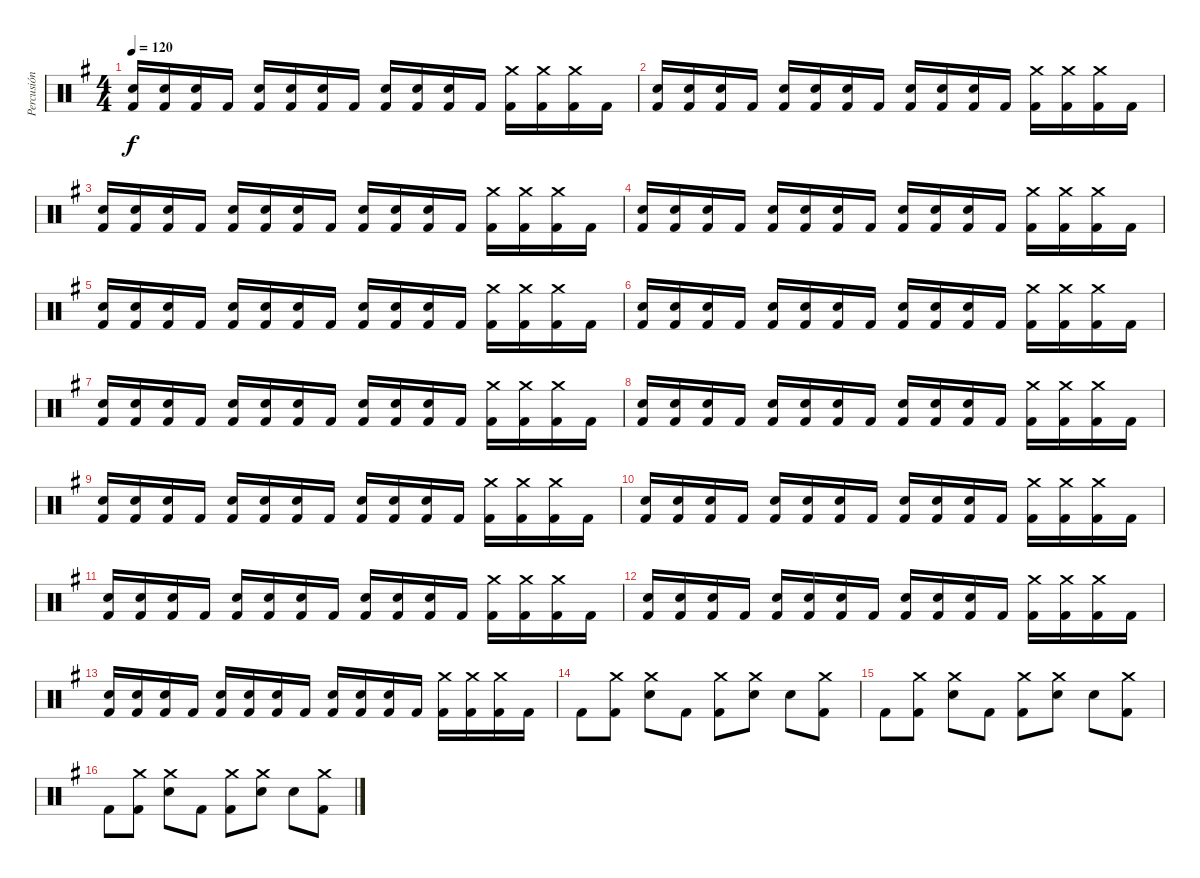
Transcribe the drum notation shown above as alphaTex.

\track ("Percusión" "Percusión") {instrument percussion}
\staff {score}
\articulation defaults
\ts (4 4)
\tempo 120
\clef neutral
\ks g
("Snare (hit) 2" "Kick (hit) 2").16{dy f} ("Snare (hit) 2" "Kick (hit) 2").16 ("Snare (hit) 2" "Kick (hit) 2").16 "Kick (hit) 2".16 ("Snare (hit) 2" "Kick (hit) 2").16 ("Snare (hit) 2" "Kick (hit) 2").16 ("Snare (hit) 2" "Kick (hit) 2").16 "Kick (hit) 2".16 ("Snare (hit) 2" "Kick (hit) 2").16 ("Snare (hit) 2" "Kick (hit) 2").16 ("Snare (hit) 2" "Kick (hit) 2").16 "Kick (hit) 2".16 ("Crash medium (hit)" "Kick (hit) 2").16 ("Crash medium (hit)" "Kick (hit) 2").16 ("Crash medium (hit)" "Kick (hit) 2").16 "Kick (hit) 2".16 |
("Snare (hit) 2" "Kick (hit) 2").16 ("Snare (hit) 2" "Kick (hit) 2").16 ("Snare (hit) 2" "Kick (hit) 2").16 "Kick (hit) 2".16 ("Snare (hit) 2" "Kick (hit) 2").16 ("Snare (hit) 2" "Kick (hit) 2").16 ("Snare (hit) 2" "Kick (hit) 2").16 "Kick (hit) 2".16 ("Snare (hit) 2" "Kick (hit) 2").16 ("Snare (hit) 2" "Kick (hit) 2").16 ("Snare (hit) 2" "Kick (hit) 2").16 "Kick (hit) 2".16 ("Crash medium (hit)" "Kick (hit) 2").16 ("Crash medium (hit)" "Kick (hit) 2").16 ("Crash medium (hit)" "Kick (hit) 2").16 "Kick (hit) 2".16 |
("Snare (hit) 2" "Kick (hit) 2").16 ("Snare (hit) 2" "Kick (hit) 2").16 ("Snare (hit) 2" "Kick (hit) 2").16 "Kick (hit) 2".16 ("Snare (hit) 2" "Kick (hit) 2").16 ("Snare (hit) 2" "Kick (hit) 2").16 ("Snare (hit) 2" "Kick (hit) 2").16 "Kick (hit) 2".16 ("Snare (hit) 2" "Kick (hit) 2").16 ("Snare (hit) 2" "Kick (hit) 2").16 ("Snare (hit) 2" "Kick (hit) 2").16 "Kick (hit) 2".16 ("Crash medium (hit)" "Kick (hit) 2").16 ("Crash medium (hit)" "Kick (hit) 2").16 ("Crash medium (hit)" "Kick (hit) 2").16 "Kick (hit) 2".16 |
("Snare (hit) 2" "Kick (hit) 2").16 ("Snare (hit) 2" "Kick (hit) 2").16 ("Snare (hit) 2" "Kick (hit) 2").16 "Kick (hit) 2".16 ("Snare (hit) 2" "Kick (hit) 2").16 ("Snare (hit) 2" "Kick (hit) 2").16 ("Snare (hit) 2" "Kick (hit) 2").16 "Kick (hit) 2".16 ("Snare (hit) 2" "Kick (hit) 2").16 ("Snare (hit) 2" "Kick (hit) 2").16 ("Snare (hit) 2" "Kick (hit) 2").16 "Kick (hit) 2".16 ("Crash medium (hit)" "Kick (hit) 2").16 ("Crash medium (hit)" "Kick (hit) 2").16 ("Crash medium (hit)" "Kick (hit) 2").16 "Kick (hit) 2".16 |
("Snare (hit) 2" "Kick (hit) 2").16 ("Snare (hit) 2" "Kick (hit) 2").16 ("Snare (hit) 2" "Kick (hit) 2").16 "Kick (hit) 2".16 ("Snare (hit) 2" "Kick (hit) 2").16 ("Snare (hit) 2" "Kick (hit) 2").16 ("Snare (hit) 2" "Kick (hit) 2").16 "Kick (hit) 2".16 ("Snare (hit) 2" "Kick (hit) 2").16 ("Snare (hit) 2" "Kick (hit) 2").16 ("Snare (hit) 2" "Kick (hit) 2").16 "Kick (hit) 2".16 ("Crash medium (hit)" "Kick (hit) 2").16 ("Crash medium (hit)" "Kick (hit) 2").16 ("Crash medium (hit)" "Kick (hit) 2").16 "Kick (hit) 2".16 |
("Snare (hit) 2" "Kick (hit) 2").16 ("Snare (hit) 2" "Kick (hit) 2").16 ("Snare (hit) 2" "Kick (hit) 2").16 "Kick (hit) 2".16 ("Snare (hit) 2" "Kick (hit) 2").16 ("Snare (hit) 2" "Kick (hit) 2").16 ("Snare (hit) 2" "Kick (hit) 2").16 "Kick (hit) 2".16 ("Snare (hit) 2" "Kick (hit) 2").16 ("Snare (hit) 2" "Kick (hit) 2").16 ("Snare (hit) 2" "Kick (hit) 2").16 "Kick (hit) 2".16 ("Crash medium (hit)" "Kick (hit) 2").16 ("Crash medium (hit)" "Kick (hit) 2").16 ("Crash medium (hit)" "Kick (hit) 2").16 "Kick (hit) 2".16 |
("Snare (hit) 2" "Kick (hit) 2").16 ("Snare (hit) 2" "Kick (hit) 2").16 ("Snare (hit) 2" "Kick (hit) 2").16 "Kick (hit) 2".16 ("Snare (hit) 2" "Kick (hit) 2").16 ("Snare (hit) 2" "Kick (hit) 2").16 ("Snare (hit) 2" "Kick (hit) 2").16 "Kick (hit) 2".16 ("Snare (hit) 2" "Kick (hit) 2").16 ("Snare (hit) 2" "Kick (hit) 2").16 ("Snare (hit) 2" "Kick (hit) 2").16 "Kick (hit) 2".16 ("Crash medium (hit)" "Kick (hit) 2").16 ("Crash medium (hit)" "Kick (hit) 2").16 ("Crash medium (hit)" "Kick (hit) 2").16 "Kick (hit) 2".16 |
("Snare (hit) 2" "Kick (hit) 2").16 ("Snare (hit) 2" "Kick (hit) 2").16 ("Snare (hit) 2" "Kick (hit) 2").16 "Kick (hit) 2".16 ("Snare (hit) 2" "Kick (hit) 2").16 ("Snare (hit) 2" "Kick (hit) 2").16 ("Snare (hit) 2" "Kick (hit) 2").16 "Kick (hit) 2".16 ("Snare (hit) 2" "Kick (hit) 2").16 ("Snare (hit) 2" "Kick (hit) 2").16 ("Snare (hit) 2" "Kick (hit) 2").16 "Kick (hit) 2".16 ("Crash medium (hit)" "Kick (hit) 2").16 ("Crash medium (hit)" "Kick (hit) 2").16 ("Crash medium (hit)" "Kick (hit) 2").16 "Kick (hit) 2".16 |
("Snare (hit) 2" "Kick (hit) 2").16 ("Snare (hit) 2" "Kick (hit) 2").16 ("Snare (hit) 2" "Kick (hit) 2").16 "Kick (hit) 2".16 ("Snare (hit) 2" "Kick (hit) 2").16 ("Snare (hit) 2" "Kick (hit) 2").16 ("Snare (hit) 2" "Kick (hit) 2").16 "Kick (hit) 2".16 ("Snare (hit) 2" "Kick (hit) 2").16 ("Snare (hit) 2" "Kick (hit) 2").16 ("Snare (hit) 2" "Kick (hit) 2").16 "Kick (hit) 2".16 ("Crash medium (hit)" "Kick (hit) 2").16 ("Crash medium (hit)" "Kick (hit) 2").16 ("Crash medium (hit)" "Kick (hit) 2").16 "Kick (hit) 2".16 |
("Snare (hit) 2" "Kick (hit) 2").16 ("Snare (hit) 2" "Kick (hit) 2").16 ("Snare (hit) 2" "Kick (hit) 2").16 "Kick (hit) 2".16 ("Snare (hit) 2" "Kick (hit) 2").16 ("Snare (hit) 2" "Kick (hit) 2").16 ("Snare (hit) 2" "Kick (hit) 2").16 "Kick (hit) 2".16 ("Snare (hit) 2" "Kick (hit) 2").16 ("Snare (hit) 2" "Kick (hit) 2").16 ("Snare (hit) 2" "Kick (hit) 2").16 "Kick (hit) 2".16 ("Crash medium (hit)" "Kick (hit) 2").16 ("Crash medium (hit)" "Kick (hit) 2").16 ("Crash medium (hit)" "Kick (hit) 2").16 "Kick (hit) 2".16 |
("Snare (hit) 2" "Kick (hit) 2").16 ("Snare (hit) 2" "Kick (hit) 2").16 ("Snare (hit) 2" "Kick (hit) 2").16 "Kick (hit) 2".16 ("Snare (hit) 2" "Kick (hit) 2").16 ("Snare (hit) 2" "Kick (hit) 2").16 ("Snare (hit) 2" "Kick (hit) 2").16 "Kick (hit) 2".16 ("Snare (hit) 2" "Kick (hit) 2").16 ("Snare (hit) 2" "Kick (hit) 2").16 ("Snare (hit) 2" "Kick (hit) 2").16 "Kick (hit) 2".16 ("Crash medium (hit)" "Kick (hit) 2").16 ("Crash medium (hit)" "Kick (hit) 2").16 ("Crash medium (hit)" "Kick (hit) 2").16 "Kick (hit) 2".16 |
("Snare (hit) 2" "Kick (hit) 2").16 ("Snare (hit) 2" "Kick (hit) 2").16 ("Snare (hit) 2" "Kick (hit) 2").16 "Kick (hit) 2".16 ("Snare (hit) 2" "Kick (hit) 2").16 ("Snare (hit) 2" "Kick (hit) 2").16 ("Snare (hit) 2" "Kick (hit) 2").16 "Kick (hit) 2".16 ("Snare (hit) 2" "Kick (hit) 2").16 ("Snare (hit) 2" "Kick (hit) 2").16 ("Snare (hit) 2" "Kick (hit) 2").16 "Kick (hit) 2".16 ("Crash medium (hit)" "Kick (hit) 2").16 ("Crash medium (hit)" "Kick (hit) 2").16 ("Crash medium (hit)" "Kick (hit) 2").16 "Kick (hit) 2".16 |
("Snare (hit) 2" "Kick (hit) 2").16 ("Snare (hit) 2" "Kick (hit) 2").16 ("Snare (hit) 2" "Kick (hit) 2").16 "Kick (hit) 2".16 ("Snare (hit) 2" "Kick (hit) 2").16 ("Snare (hit) 2" "Kick (hit) 2").16 ("Snare (hit) 2" "Kick (hit) 2").16 "Kick (hit) 2".16 ("Snare (hit) 2" "Kick (hit) 2").16 ("Snare (hit) 2" "Kick (hit) 2").16 ("Snare (hit) 2" "Kick (hit) 2").16 "Kick (hit) 2".16 ("Crash medium (hit)" "Kick (hit) 2").16 ("Crash medium (hit)" "Kick (hit) 2").16 ("Crash medium (hit)" "Kick (hit) 2").16 "Kick (hit) 2".16 |
"Kick (hit) 2".8 ("Crash medium (hit)" "Kick (hit) 2").8 ("Crash medium (hit)" "Electric Snare (hit)").8 "Kick (hit) 2".8 ("Crash medium (hit)" "Kick (hit) 2").8 ("Crash medium (hit)" "Electric Snare (hit)").8 "Electric Snare (hit)".8 ("Crash medium (hit)" "Kick (hit) 2").8 |
"Kick (hit) 2".8 ("Crash medium (hit)" "Kick (hit) 2").8 ("Crash medium (hit)" "Electric Snare (hit)").8 "Kick (hit) 2".8 ("Crash medium (hit)" "Kick (hit) 2").8 ("Crash medium (hit)" "Electric Snare (hit)").8 "Electric Snare (hit)".8 ("Crash medium (hit)" "Kick (hit) 2").8 |
"Kick (hit) 2".8 ("Crash medium (hit)" "Kick (hit) 2").8 ("Crash medium (hit)" "Electric Snare (hit)").8 "Kick (hit) 2".8 ("Crash medium (hit)" "Kick (hit) 2").8 ("Crash medium (hit)" "Electric Snare (hit)").8 "Electric Snare (hit)".8 ("Crash medium (hit)" "Kick (hit) 2").8
